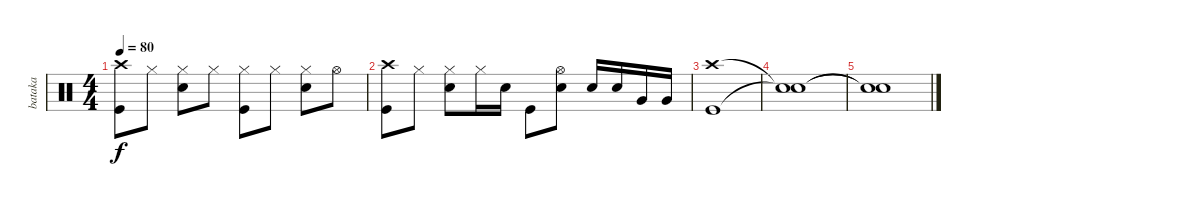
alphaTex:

\track ("bataka" "bataka") {instrument percussion}
\staff {score}
\articulation defaults
\ts (4 4)
\tempo 80
\clef neutral
\ks c
("Crash high (hit)" "Kick (hit)").8{dy f} "Hi-Hat (closed)".8 ("Hi-Hat (closed)" "Electric Snare (hit)").8 "Hi-Hat (closed)".8 ("Hi-Hat (closed)" "Kick (hit)").8 "Hi-Hat (closed)".8 ("Hi-Hat (closed)" "Electric Snare (hit)").8 "Hi-Hat (open)".8 |
("Crash high (hit)" "Kick (hit)").8 "Hi-Hat (closed)".8 ("Hi-Hat (closed)" "Electric Snare (hit)").8 "Hi-Hat (closed)".16 "Electric Snare (hit)".16 "Kick (hit)".8 ("Hi-Hat (open)" "Electric Snare (hit)").8 "Electric Snare (hit)".16 "Electric Snare (hit)".16 "Very Low Tom (hit)".16 "Very Low Tom (hit)".16 |
("Crash high (hit)" "Kick (hit)").1 |
("Snare (hit)"{t} "Snare (hit)"{t}).1 |
("Snare (hit)"{t} "Snare (hit)"{t}).1
